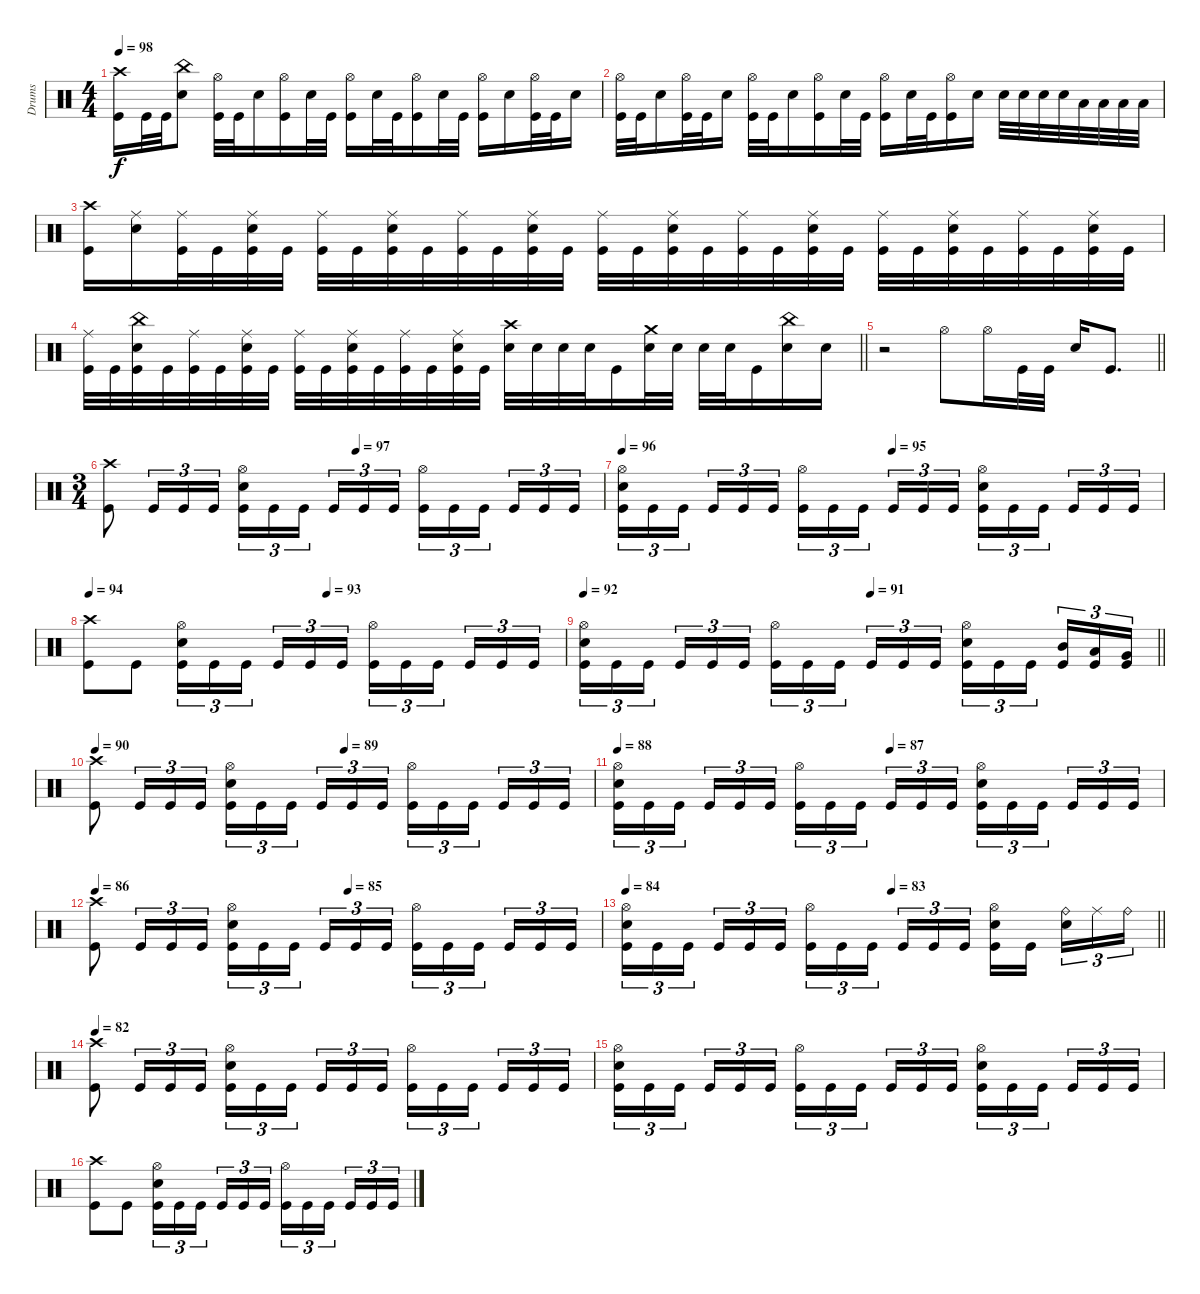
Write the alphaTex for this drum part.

\track ("Drums" "Drums") {instrument percussion}
\staff
\articulation defaults
\ts (4 4)
\tempo 98
\clef neutral
\ks c
("Crash high (hit)" "Kick (hit)").16{dy f} "Kick (hit)".32 "Kick (hit)".32 ("China (hit)" "Electric Snare (hit)").8 ("Hi-Hat (open)" "Kick (hit)").32 "Kick (hit)".32 "Electric Snare (hit)".16 ("Hi-Hat (open)" "Kick (hit)").16 "Electric Snare (hit)".32 "Kick (hit)".32 ("Hi-Hat (open)" "Kick (hit)").16 "Electric Snare (hit)".32 "Kick (hit)".32 ("Hi-Hat (open)" "Kick (hit)").16 "Electric Snare (hit)".32 "Kick (hit)".32 ("Hi-Hat (open)" "Kick (hit)").16 "Electric Snare (hit)".16 ("Hi-Hat (open)" "Kick (hit)").32 "Kick (hit)".32 "Electric Snare (hit)".16 |
("Hi-Hat (open)" "Kick (hit)").32 "Kick (hit)".32 "Electric Snare (hit)".16 ("Hi-Hat (open)" "Kick (hit)").32 "Kick (hit)".32 "Electric Snare (hit)".16 ("Hi-Hat (open)" "Kick (hit)").32 "Kick (hit)".32 "Electric Snare (hit)".16 ("Hi-Hat (open)" "Kick (hit)").16 "Electric Snare (hit)".32 "Kick (hit)".32 ("Hi-Hat (open)" "Kick (hit)").16 "Electric Snare (hit)".32 "Kick (hit)".32 ("Hi-Hat (open)" "Kick (hit)").16 "Electric Snare (hit)".16 "Electric Snare (hit)".32 "Electric Snare (hit)".32 "Electric Snare (hit)".32 "Electric Snare (hit)".32 "Low Tom (hit)".32 "Low Tom (hit)".32 "Low Tom (hit)".32 "Low Tom (hit)".32 |
("Crash high (hit)" "Kick (hit)").16 ("Ride (middle)" "Electric Snare (hit)").16 ("Ride (middle)" "Kick (hit)").32 "Kick (hit)".32 ("Ride (middle)" "Electric Snare (hit)" "Kick (hit)").32 "Kick (hit)".32 ("Ride (middle)" "Kick (hit)").32 "Kick (hit)".32 ("Ride (middle)" "Electric Snare (hit)" "Kick (hit)").32 "Kick (hit)".32 ("Ride (middle)" "Kick (hit)").32 "Kick (hit)".32 ("Ride (middle)" "Electric Snare (hit)" "Kick (hit)").32 "Kick (hit)".32 ("Ride (middle)" "Kick (hit)").32 "Kick (hit)".32 ("Ride (middle)" "Electric Snare (hit)" "Kick (hit)").32 "Kick (hit)".32 ("Ride (middle)" "Kick (hit)").32 "Kick (hit)".32 ("Ride (middle)" "Electric Snare (hit)" "Kick (hit)").32 "Kick (hit)".32 ("Ride (middle)" "Kick (hit)").32 "Kick (hit)".32 ("Ride (middle)" "Electric Snare (hit)" "Kick (hit)").32 "Kick (hit)".32 ("Ride (middle)" "Kick (hit)").32 "Kick (hit)".32 ("Ride (middle)" "Electric Snare (hit)" "Kick (hit)").32 "Kick (hit)".32 |
\barLineRight lightlight
("Ride (middle)" "Kick (hit)").32 "Kick (hit)".32 ("China (hit)" "Electric Snare (hit)" "Kick (hit)").32 "Kick (hit)".32 ("Ride (middle)" "Kick (hit)").32 "Kick (hit)".32 ("Ride (middle)" "Electric Snare (hit)" "Kick (hit)").32 "Kick (hit)".32 ("Ride (middle)" "Kick (hit)").32 "Kick (hit)".32 ("Ride (middle)" "Electric Snare (hit)" "Kick (hit)").32 "Kick (hit)".32 ("Ride (middle)" "Kick (hit)").32 "Kick (hit)".32 ("Ride (middle)" "Electric Snare (hit)" "Kick (hit)").32 "Kick (hit)".32 ("Crash high (hit)" "Electric Snare (hit)").32 "Electric Snare (hit)".32 "Electric Snare (hit)".32 "Electric Snare (hit)".32 "Kick (hit)".16 ("Crash medium (hit)" "Electric Snare (hit)").32 "Electric Snare (hit)".32 "Electric Snare (hit)".32 "Electric Snare (hit)".32 "Kick (hit)".16 ("China (hit)" "Electric Snare (hit)").16 "Electric Snare (hit)".16 |
\barLineRight lightlight
r.2 "Hi-Hat (open)".8 "Hi-Hat (open)".16 "Kick (hit)".32 "Kick (hit)".32 "Electric Snare (hit)".16 "Kick (hit)".8{d} |
\ts (3 4)
\section ("" "")
\tempo (97 0.5)
("Crash high (hit)" "Kick (hit)").8 "Kick (hit)".16{tu (3 2)} "Kick (hit)".16{tu (3 2)} "Kick (hit)".16{tu (3 2)} ("Hi-Hat (open)" "Electric Snare (hit)" "Kick (hit)").16{tu (3 2)} "Kick (hit)".16{tu (3 2)} "Kick (hit)".16{tu (3 2) beam splitsecondary} "Kick (hit)".16{tu (3 2)} "Kick (hit)".16{tu (3 2)} "Kick (hit)".16{tu (3 2)} ("Hi-Hat (open)" "Kick (hit)").16{tu (3 2)} "Kick (hit)".16{tu (3 2)} "Kick (hit)".16{tu (3 2) beam splitsecondary} "Kick (hit)".16{tu (3 2)} "Kick (hit)".16{tu (3 2)} "Kick (hit)".16{tu (3 2)} |
\tempo 96
\tempo (95 0.5)
("Hi-Hat (open)" "Electric Snare (hit)" "Kick (hit)").16{tu (3 2)} "Kick (hit)".16{tu (3 2)} "Kick (hit)".16{tu (3 2) beam splitsecondary} "Kick (hit)".16{tu (3 2)} "Kick (hit)".16{tu (3 2)} "Kick (hit)".16{tu (3 2)} ("Hi-Hat (open)" "Kick (hit)").16{tu (3 2)} "Kick (hit)".16{tu (3 2)} "Kick (hit)".16{tu (3 2) beam splitsecondary} "Kick (hit)".16{tu (3 2)} "Kick (hit)".16{tu (3 2)} "Kick (hit)".16{tu (3 2)} ("Hi-Hat (open)" "Electric Snare (hit)" "Kick (hit)").16{tu (3 2)} "Kick (hit)".16{tu (3 2)} "Kick (hit)".16{tu (3 2) beam splitsecondary} "Kick (hit)".16{tu (3 2)} "Kick (hit)".16{tu (3 2)} "Kick (hit)".16{tu (3 2)} |
\tempo 94
\tempo (93 0.5)
("Crash high (hit)" "Kick (hit)").8 "Kick (hit)".8 ("Hi-Hat (open)" "Electric Snare (hit)" "Kick (hit)").16{tu (3 2)} "Kick (hit)".16{tu (3 2)} "Kick (hit)".16{tu (3 2) beam splitsecondary} "Kick (hit)".16{tu (3 2)} "Kick (hit)".16{tu (3 2)} "Kick (hit)".16{tu (3 2)} ("Hi-Hat (open)" "Kick (hit)").16{tu (3 2)} "Kick (hit)".16{tu (3 2)} "Kick (hit)".16{tu (3 2) beam splitsecondary} "Kick (hit)".16{tu (3 2)} "Kick (hit)".16{tu (3 2)} "Kick (hit)".16{tu (3 2)} |
\tempo 92
\tempo (91 0.5)
\barLineRight lightlight
("Hi-Hat (open)" "Electric Snare (hit)" "Kick (hit)").16{tu (3 2)} "Kick (hit)".16{tu (3 2)} "Kick (hit)".16{tu (3 2) beam splitsecondary} "Kick (hit)".16{tu (3 2)} "Kick (hit)".16{tu (3 2)} "Kick (hit)".16{tu (3 2)} ("Hi-Hat (open)" "Kick (hit)").16{tu (3 2)} "Kick (hit)".16{tu (3 2)} "Kick (hit)".16{tu (3 2) beam splitsecondary} "Kick (hit)".16{tu (3 2)} "Kick (hit)".16{tu (3 2)} "Kick (hit)".16{tu (3 2)} ("Hi-Hat (open)" "Electric Snare (hit)" "Kick (hit)").16{tu (3 2)} "Kick (hit)".16{tu (3 2)} "Kick (hit)".16{tu (3 2) beam splitsecondary} ("Mid Tom (hit)" "Kick (hit)").16{tu (3 2)} ("Low Tom (hit)" "Kick (hit)").16{tu (3 2)} ("Very Low Tom (hit)" "Kick (hit)").16{tu (3 2)} |
\tempo 90
\tempo (89 0.5)
("Crash high (hit)" "Kick (hit)").8 "Kick (hit)".16{tu (3 2)} "Kick (hit)".16{tu (3 2)} "Kick (hit)".16{tu (3 2)} ("Hi-Hat (open)" "Electric Snare (hit)" "Kick (hit)").16{tu (3 2)} "Kick (hit)".16{tu (3 2)} "Kick (hit)".16{tu (3 2) beam splitsecondary} "Kick (hit)".16{tu (3 2)} "Kick (hit)".16{tu (3 2)} "Kick (hit)".16{tu (3 2)} ("Hi-Hat (open)" "Kick (hit)").16{tu (3 2)} "Kick (hit)".16{tu (3 2)} "Kick (hit)".16{tu (3 2) beam splitsecondary} "Kick (hit)".16{tu (3 2)} "Kick (hit)".16{tu (3 2)} "Kick (hit)".16{tu (3 2)} |
\tempo 88
\tempo (87 0.5)
("Hi-Hat (open)" "Electric Snare (hit)" "Kick (hit)").16{tu (3 2)} "Kick (hit)".16{tu (3 2)} "Kick (hit)".16{tu (3 2) beam splitsecondary} "Kick (hit)".16{tu (3 2)} "Kick (hit)".16{tu (3 2)} "Kick (hit)".16{tu (3 2)} ("Hi-Hat (open)" "Kick (hit)").16{tu (3 2)} "Kick (hit)".16{tu (3 2)} "Kick (hit)".16{tu (3 2) beam splitsecondary} "Kick (hit)".16{tu (3 2)} "Kick (hit)".16{tu (3 2)} "Kick (hit)".16{tu (3 2)} ("Hi-Hat (open)" "Electric Snare (hit)" "Kick (hit)").16{tu (3 2)} "Kick (hit)".16{tu (3 2)} "Kick (hit)".16{tu (3 2) beam splitsecondary} "Kick (hit)".16{tu (3 2)} "Kick (hit)".16{tu (3 2)} "Kick (hit)".16{tu (3 2)} |
\tempo 86
\tempo (85 0.5)
("Crash high (hit)" "Kick (hit)").8 "Kick (hit)".16{tu (3 2)} "Kick (hit)".16{tu (3 2)} "Kick (hit)".16{tu (3 2)} ("Hi-Hat (open)" "Electric Snare (hit)" "Kick (hit)").16{tu (3 2)} "Kick (hit)".16{tu (3 2)} "Kick (hit)".16{tu (3 2) beam splitsecondary} "Kick (hit)".16{tu (3 2)} "Kick (hit)".16{tu (3 2)} "Kick (hit)".16{tu (3 2)} ("Hi-Hat (open)" "Kick (hit)").16{tu (3 2)} "Kick (hit)".16{tu (3 2)} "Kick (hit)".16{tu (3 2) beam splitsecondary} "Kick (hit)".16{tu (3 2)} "Kick (hit)".16{tu (3 2)} "Kick (hit)".16{tu (3 2)} |
\tempo 84
\tempo (83 0.5)
\barLineRight lightlight
("Hi-Hat (open)" "Electric Snare (hit)" "Kick (hit)").16{tu (3 2)} "Kick (hit)".16{tu (3 2)} "Kick (hit)".16{tu (3 2) beam splitsecondary} "Kick (hit)".16{tu (3 2)} "Kick (hit)".16{tu (3 2)} "Kick (hit)".16{tu (3 2)} ("Hi-Hat (open)" "Kick (hit)").16{tu (3 2)} "Kick (hit)".16{tu (3 2)} "Kick (hit)".16{tu (3 2) beam splitsecondary} "Kick (hit)".16{tu (3 2)} "Kick (hit)".16{tu (3 2)} "Kick (hit)".16{tu (3 2)} ("Hi-Hat (open)" "Electric Snare (hit)" "Kick (hit)").16 "Kick (hit)".16{beam splitsecondary} ("Ride (bell)" "Electric Snare (hit)").16{tu (3 2)} "Ride (middle)".16{tu (3 2)} "Ride (bell)".16{tu (3 2)} |
\tempo 82
("Crash high (hit)" "Kick (hit)").8 "Kick (hit)".16{tu (3 2)} "Kick (hit)".16{tu (3 2)} "Kick (hit)".16{tu (3 2)} ("Hi-Hat (open)" "Electric Snare (hit)" "Kick (hit)").16{tu (3 2)} "Kick (hit)".16{tu (3 2)} "Kick (hit)".16{tu (3 2) beam splitsecondary} "Kick (hit)".16{tu (3 2)} "Kick (hit)".16{tu (3 2)} "Kick (hit)".16{tu (3 2)} ("Hi-Hat (open)" "Kick (hit)").16{tu (3 2)} "Kick (hit)".16{tu (3 2)} "Kick (hit)".16{tu (3 2) beam splitsecondary} "Kick (hit)".16{tu (3 2)} "Kick (hit)".16{tu (3 2)} "Kick (hit)".16{tu (3 2)} |
("Hi-Hat (open)" "Electric Snare (hit)" "Kick (hit)").16{tu (3 2)} "Kick (hit)".16{tu (3 2)} "Kick (hit)".16{tu (3 2) beam splitsecondary} "Kick (hit)".16{tu (3 2)} "Kick (hit)".16{tu (3 2)} "Kick (hit)".16{tu (3 2)} ("Hi-Hat (open)" "Kick (hit)").16{tu (3 2)} "Kick (hit)".16{tu (3 2)} "Kick (hit)".16{tu (3 2) beam splitsecondary} "Kick (hit)".16{tu (3 2)} "Kick (hit)".16{tu (3 2)} "Kick (hit)".16{tu (3 2)} ("Hi-Hat (open)" "Electric Snare (hit)" "Kick (hit)").16{tu (3 2)} "Kick (hit)".16{tu (3 2)} "Kick (hit)".16{tu (3 2) beam splitsecondary} "Kick (hit)".16{tu (3 2)} "Kick (hit)".16{tu (3 2)} "Kick (hit)".16{tu (3 2)} |
("Crash high (hit)" "Kick (hit)").8 "Kick (hit)".8 ("Hi-Hat (open)" "Electric Snare (hit)" "Kick (hit)").16{tu (3 2)} "Kick (hit)".16{tu (3 2)} "Kick (hit)".16{tu (3 2) beam splitsecondary} "Kick (hit)".16{tu (3 2)} "Kick (hit)".16{tu (3 2)} "Kick (hit)".16{tu (3 2)} ("Hi-Hat (open)" "Kick (hit)").16{tu (3 2)} "Kick (hit)".16{tu (3 2)} "Kick (hit)".16{tu (3 2) beam splitsecondary} "Kick (hit)".16{tu (3 2)} "Kick (hit)".16{tu (3 2)} "Kick (hit)".16{tu (3 2)}
